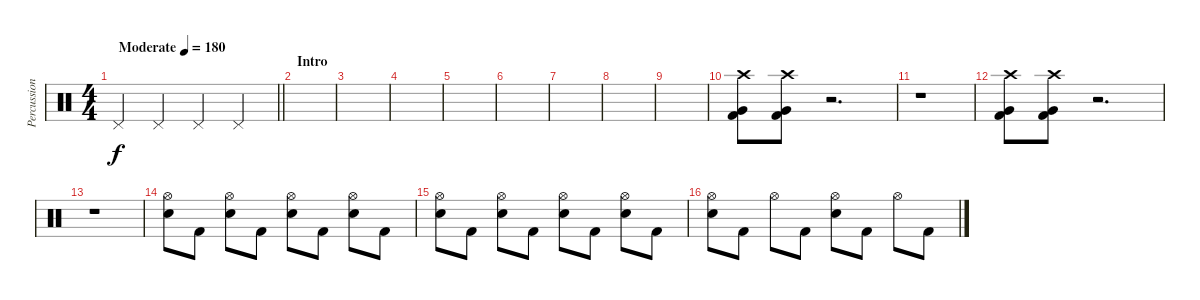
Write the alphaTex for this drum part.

\track ("Percussion" "Percussion") {instrument percussion}
\staff {score}
\articulation defaults
\ts (4 4)
\tempo (180 "Moderate")
\clef neutral
\barLineRight lightlight
\ks c "Pedal Hi-Hat (hit)".4{dy f} "Pedal Hi-Hat (hit)".4 "Pedal Hi-Hat (hit)".4 "Pedal Hi-Hat (hit)".4
|
\section ("" "Intro")
|
|
|
|
|
|
|
|
("Crash high (hit)" "Very Low Tom (hit)" "Kick (hit) 2").8 ("Crash high (hit)" "Very Low Tom (hit)" "Kick (hit) 2").8 r.2{d} |
r.1 |
("Crash high (hit)" "Very Low Tom (hit)" "Kick (hit) 2").8 ("Crash high (hit)" "Very Low Tom (hit)" "Kick (hit) 2").8 r.2{d} |
r.1 |
("Hi-Hat (open)" "Electric Snare (hit)").8 "Kick (hit) 2".8 ("Hi-Hat (open)" "Electric Snare (hit)").8 "Kick (hit) 2".8 ("Hi-Hat (open)" "Electric Snare (hit)").8 "Kick (hit) 2".8 ("Hi-Hat (open)" "Electric Snare (hit)").8 "Kick (hit) 2".8 |
("Hi-Hat (open)" "Electric Snare (hit)").8 "Kick (hit) 2".8 ("Hi-Hat (open)" "Electric Snare (hit)").8 "Kick (hit) 2".8 ("Hi-Hat (open)" "Electric Snare (hit)").8 "Kick (hit) 2".8 ("Hi-Hat (open)" "Electric Snare (hit)").8 "Kick (hit) 2".8 |
("Hi-Hat (open)" "Electric Snare (hit)").8 "Kick (hit) 2".8 "Hi-Hat (open)".8 "Kick (hit) 2".8 ("Hi-Hat (open)" "Electric Snare (hit)").8 "Kick (hit) 2".8 "Hi-Hat (open)".8 "Kick (hit) 2".8
